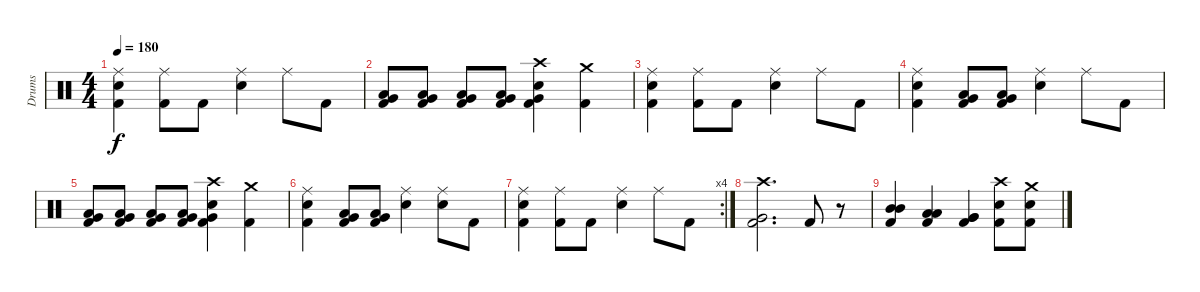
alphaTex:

\track ("Drums" "Drums") {instrument percussion}
\staff {score}
\articulation defaults
\ts (4 4)
\tempo 180
\clef neutral
\ks c
("Ride (middle)" "Electric Snare (hit)" "Kick (hit) 2").4{dy f} ("Ride (middle)" "Kick (hit) 2").8 "Kick (hit) 2".8 ("Ride (middle)" "Electric Snare (hit)").4 "Ride (middle)".8 "Kick (hit) 2".8 |
("Low Floor Tom (hit)" "Very Low Tom (hit)" "Kick (hit) 2").8 ("Low Floor Tom (hit)" "Very Low Tom (hit)" "Kick (hit) 2").8 ("Low Floor Tom (hit)" "Very Low Tom (hit)" "Kick (hit) 2").8 ("Low Floor Tom (hit)" "Very Low Tom (hit)" "Kick (hit) 2").8 ("Crash high (hit)" "Electric Snare (hit)" "Very Low Tom (hit)" "Kick (hit) 2").4 ("Crash medium (hit)" "Kick (hit) 2").4 |
("Ride (middle)" "Electric Snare (hit)" "Kick (hit) 2").4 ("Ride (middle)" "Kick (hit) 2").8 "Kick (hit) 2".8 ("Ride (middle)" "Electric Snare (hit)").4 "Ride (middle)".8 "Kick (hit) 2".8 |
("Ride (middle)" "Electric Snare (hit)" "Kick (hit) 2").4 ("Very Low Tom (hit)" "Low Floor Tom (hit)" "Kick (hit) 2").8 ("Very Low Tom (hit)" "Low Floor Tom (hit)" "Kick (hit) 2").8 ("Ride (middle)" "Electric Snare (hit)").4 "Ride (middle)".8 "Kick (hit) 2".8 |
("Low Floor Tom (hit)" "Very Low Tom (hit)" "Kick (hit) 2").8 ("Low Floor Tom (hit)" "Very Low Tom (hit)" "Kick (hit) 2").8 ("Low Floor Tom (hit)" "Very Low Tom (hit)" "Kick (hit) 2").8 ("Low Floor Tom (hit)" "Very Low Tom (hit)" "Kick (hit) 2").8 ("Crash high (hit)" "Electric Snare (hit)" "Very Low Tom (hit)" "Kick (hit) 2").4 ("Crash medium (hit)" "Kick (hit) 2").4 |
("Ride (middle)" "Electric Snare (hit)" "Kick (hit) 2").4 ("Very Low Tom (hit)" "Low Floor Tom (hit)" "Kick (hit) 2").8 ("Very Low Tom (hit)" "Low Floor Tom (hit)" "Kick (hit) 2").8 ("Ride (middle)" "Electric Snare (hit)").4 ("Ride (middle)" "Electric Snare (hit)").8 "Kick (hit) 2".8 |
\rc 4
("Ride (middle)" "Electric Snare (hit)" "Kick (hit) 2").4 ("Ride (middle)" "Kick (hit) 2").8 "Kick (hit) 2".8 ("Ride (middle)" "Electric Snare (hit)").4 "Ride (middle)".8 "Kick (hit) 2".8 |
("Crash high (hit)" "Very Low Tom (hit)" "Kick (hit) 2").2{d} "Kick (hit) 2".8 r.8 |
("Mid Tom (hit)" "Mid Tom (hit)" "Kick (hit) 2").4 ("Low Tom (hit)" "Low Tom (hit)" "Kick (hit) 2").4 ("Very Low Tom (hit)" "Very Low Tom (hit)" "Kick (hit) 2").4 ("Crash high (hit)" "Electric Snare (hit)" "Kick (hit) 2").8 ("Crash medium (hit)" "Electric Snare (hit)" "Kick (hit) 2").8
